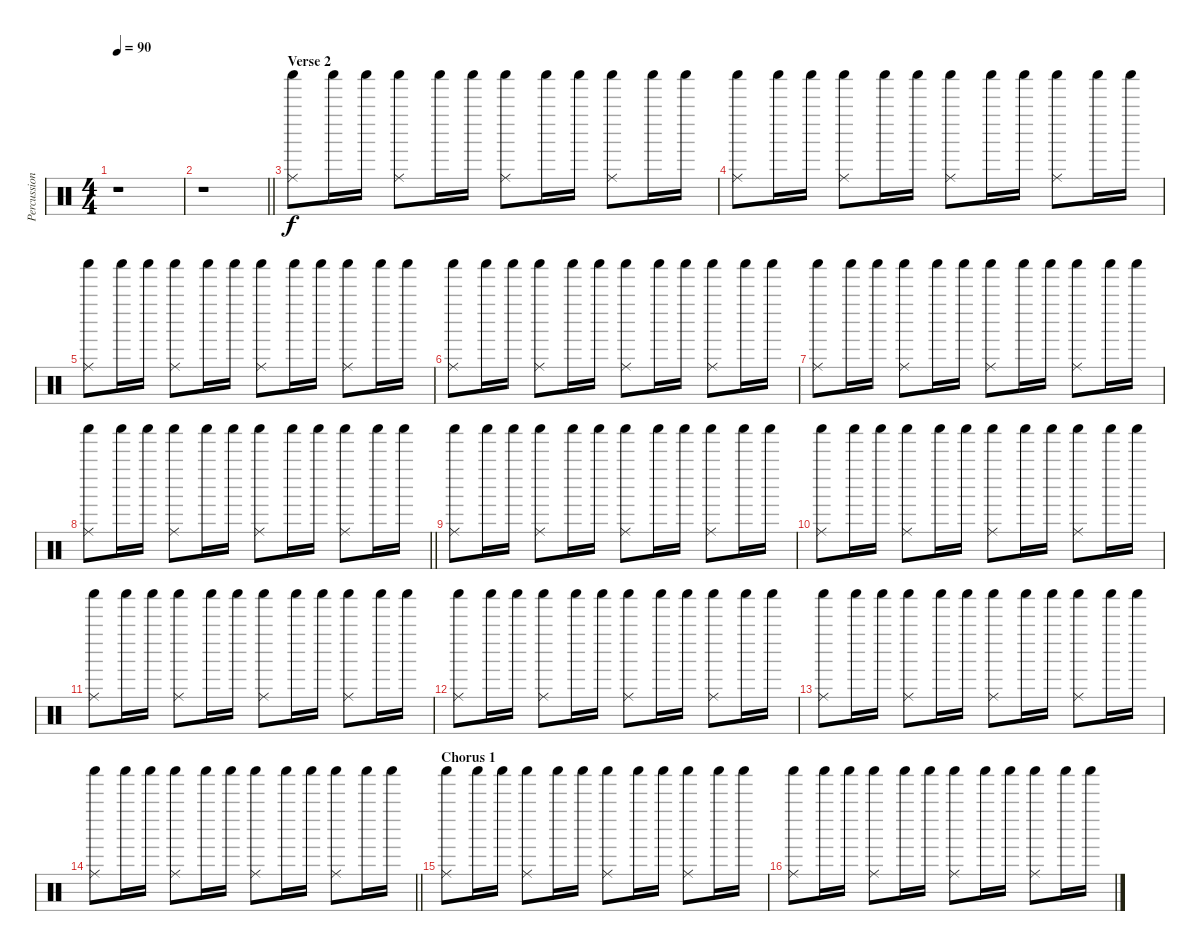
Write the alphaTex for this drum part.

\track ("Percussion (Chris Maitland)" "Percussion") {instrument percussion}
\staff {score}
\articulation defaults
\ts (4 4)
\tempo 90
\clef neutral
\ks c
r.1{dy f} |
\barLineRight lightlight
r.1 |
\section ("" "Verse 2")
("Ride (middle)" "Shaker (hit)").8 "Shaker (hit)".16 "Shaker (hit)".16 ("Ride (middle)" "Shaker (hit)").8 "Shaker (hit)".16 "Shaker (hit)".16 ("Ride (middle)" "Shaker (hit)").8 "Shaker (hit)".16 "Shaker (hit)".16 ("Ride (middle)" "Shaker (hit)").8 "Shaker (hit)".16 "Shaker (hit)".16 |
("Ride (middle)" "Shaker (hit)").8 "Shaker (hit)".16 "Shaker (hit)".16 ("Ride (middle)" "Shaker (hit)").8 "Shaker (hit)".16 "Shaker (hit)".16 ("Ride (middle)" "Shaker (hit)").8 "Shaker (hit)".16 "Shaker (hit)".16 ("Ride (middle)" "Shaker (hit)").8 "Shaker (hit)".16 "Shaker (hit)".16 |
("Ride (middle)" "Shaker (hit)").8 "Shaker (hit)".16 "Shaker (hit)".16 ("Ride (middle)" "Shaker (hit)").8 "Shaker (hit)".16 "Shaker (hit)".16 ("Ride (middle)" "Shaker (hit)").8 "Shaker (hit)".16 "Shaker (hit)".16 ("Ride (middle)" "Shaker (hit)").8 "Shaker (hit)".16 "Shaker (hit)".16 |
("Ride (middle)" "Shaker (hit)").8 "Shaker (hit)".16 "Shaker (hit)".16 ("Ride (middle)" "Shaker (hit)").8 "Shaker (hit)".16 "Shaker (hit)".16 ("Ride (middle)" "Shaker (hit)").8 "Shaker (hit)".16 "Shaker (hit)".16 ("Ride (middle)" "Shaker (hit)").8 "Shaker (hit)".16 "Shaker (hit)".16 |
("Ride (middle)" "Shaker (hit)").8 "Shaker (hit)".16 "Shaker (hit)".16 ("Ride (middle)" "Shaker (hit)").8 "Shaker (hit)".16 "Shaker (hit)".16 ("Ride (middle)" "Shaker (hit)").8 "Shaker (hit)".16 "Shaker (hit)".16 ("Ride (middle)" "Shaker (hit)").8 "Shaker (hit)".16 "Shaker (hit)".16 |
\barLineRight lightlight
("Ride (middle)" "Shaker (hit)").8 "Shaker (hit)".16 "Shaker (hit)".16 ("Ride (middle)" "Shaker (hit)").8 "Shaker (hit)".16 "Shaker (hit)".16 ("Ride (middle)" "Shaker (hit)").8 "Shaker (hit)".16 "Shaker (hit)".16 ("Ride (middle)" "Shaker (hit)").8 "Shaker (hit)".16 "Shaker (hit)".16 |
("Ride (middle)" "Shaker (hit)").8 "Shaker (hit)".16 "Shaker (hit)".16 ("Ride (middle)" "Shaker (hit)").8 "Shaker (hit)".16 "Shaker (hit)".16 ("Ride (middle)" "Shaker (hit)").8 "Shaker (hit)".16 "Shaker (hit)".16 ("Ride (middle)" "Shaker (hit)").8 "Shaker (hit)".16 "Shaker (hit)".16 |
("Ride (middle)" "Shaker (hit)").8 "Shaker (hit)".16 "Shaker (hit)".16 ("Ride (middle)" "Shaker (hit)").8 "Shaker (hit)".16 "Shaker (hit)".16 ("Ride (middle)" "Shaker (hit)").8 "Shaker (hit)".16 "Shaker (hit)".16 ("Ride (middle)" "Shaker (hit)").8 "Shaker (hit)".16 "Shaker (hit)".16 |
("Ride (middle)" "Shaker (hit)").8 "Shaker (hit)".16 "Shaker (hit)".16 ("Ride (middle)" "Shaker (hit)").8 "Shaker (hit)".16 "Shaker (hit)".16 ("Ride (middle)" "Shaker (hit)").8 "Shaker (hit)".16 "Shaker (hit)".16 ("Ride (middle)" "Shaker (hit)").8 "Shaker (hit)".16 "Shaker (hit)".16 |
("Ride (middle)" "Shaker (hit)").8 "Shaker (hit)".16 "Shaker (hit)".16 ("Ride (middle)" "Shaker (hit)").8 "Shaker (hit)".16 "Shaker (hit)".16 ("Ride (middle)" "Shaker (hit)").8 "Shaker (hit)".16 "Shaker (hit)".16 ("Ride (middle)" "Shaker (hit)").8 "Shaker (hit)".16 "Shaker (hit)".16 |
("Ride (middle)" "Shaker (hit)").8 "Shaker (hit)".16 "Shaker (hit)".16 ("Ride (middle)" "Shaker (hit)").8 "Shaker (hit)".16 "Shaker (hit)".16 ("Ride (middle)" "Shaker (hit)").8 "Shaker (hit)".16 "Shaker (hit)".16 ("Ride (middle)" "Shaker (hit)").8 "Shaker (hit)".16 "Shaker (hit)".16 |
\barLineRight lightlight
("Ride (middle)" "Shaker (hit)").8 "Shaker (hit)".16 "Shaker (hit)".16 ("Ride (middle)" "Shaker (hit)").8 "Shaker (hit)".16 "Shaker (hit)".16 ("Ride (middle)" "Shaker (hit)").8 "Shaker (hit)".16 "Shaker (hit)".16 ("Ride (middle)" "Shaker (hit)").8 "Shaker (hit)".16 "Shaker (hit)".16 |
\section ("" "Chorus 1")
("Ride (middle)" "Shaker (hit)").8 "Shaker (hit)".16 "Shaker (hit)".16 ("Ride (middle)" "Shaker (hit)").8 "Shaker (hit)".16 "Shaker (hit)".16 ("Ride (middle)" "Shaker (hit)").8 "Shaker (hit)".16 "Shaker (hit)".16 ("Ride (middle)" "Shaker (hit)").8 "Shaker (hit)".16 "Shaker (hit)".16 |
("Ride (middle)" "Shaker (hit)").8 "Shaker (hit)".16 "Shaker (hit)".16 ("Ride (middle)" "Shaker (hit)").8 "Shaker (hit)".16 "Shaker (hit)".16 ("Ride (middle)" "Shaker (hit)").8 "Shaker (hit)".16 "Shaker (hit)".16 ("Ride (middle)" "Shaker (hit)").8 "Shaker (hit)".16 "Shaker (hit)".16
